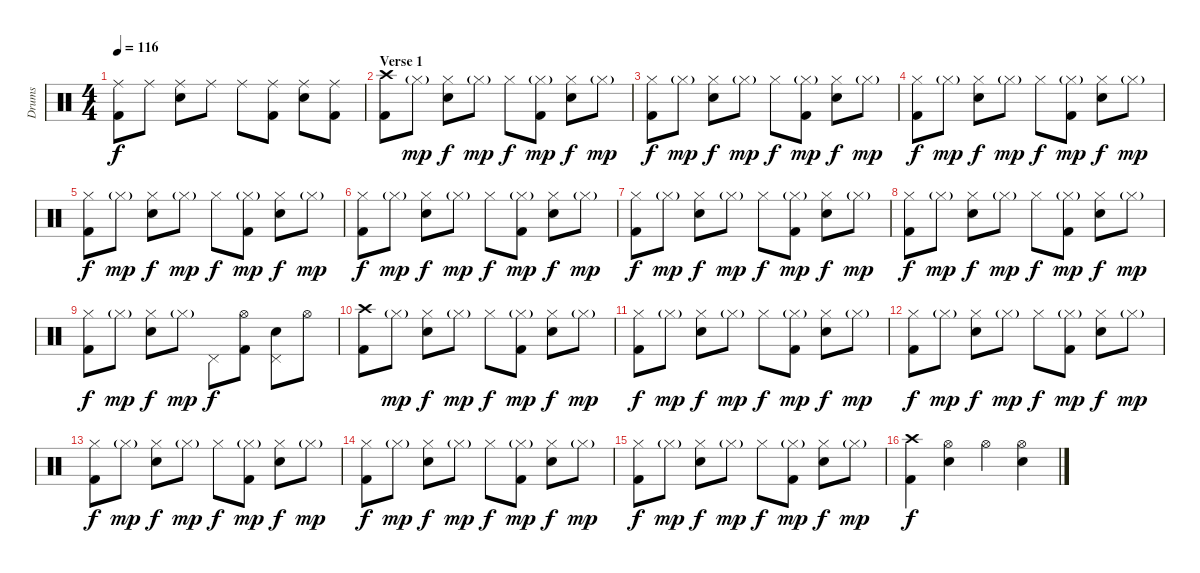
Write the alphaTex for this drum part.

\track ("Drums" "Drums") {instrument percussion}
\staff {score}
\articulation defaults
\ts (4 4)
\tempo 116
\clef neutral
\ks c
("Ride (middle)" "Kick (hit) 2").8{dy f} "Ride (middle)".8 ("Ride (middle)" "Snare (hit) 2").8 "Ride (middle)".8 "Ride (middle)".8 ("Ride (middle)" "Kick (hit) 2").8 ("Ride (middle)" "Snare (hit) 2").8 ("Ride (middle)" "Kick (hit) 2").8 |
\section ("" "Verse 1")
("Crash high (hit)" "Kick (hit) 2").8 "Hi-Hat (closed)"{g}.8{dy mp} ("Hi-Hat (closed)" "Snare (hit) 2").8{dy f} "Hi-Hat (closed)"{g}.8{dy mp} "Hi-Hat (closed)".8{dy f} ("Hi-Hat (closed)"{g} "Kick (hit) 2").8{dy mp} ("Hi-Hat (closed)" "Snare (hit) 2").8{dy f} "Hi-Hat (closed)"{g}.8{dy mp} |
("Hi-Hat (closed)" "Kick (hit) 2").8{dy f} "Hi-Hat (closed)"{g}.8{dy mp} ("Hi-Hat (closed)" "Snare (hit) 2").8{dy f} "Hi-Hat (closed)"{g}.8{dy mp} "Hi-Hat (closed)".8{dy f} ("Hi-Hat (closed)"{g} "Kick (hit) 2").8{dy mp} ("Hi-Hat (closed)" "Snare (hit) 2").8{dy f} "Hi-Hat (closed)"{g}.8{dy mp} |
("Hi-Hat (closed)" "Kick (hit) 2").8{dy f} "Hi-Hat (closed)"{g}.8{dy mp} ("Hi-Hat (closed)" "Snare (hit) 2").8{dy f} "Hi-Hat (closed)"{g}.8{dy mp} "Hi-Hat (closed)".8{dy f} ("Hi-Hat (closed)"{g} "Kick (hit) 2").8{dy mp} ("Hi-Hat (closed)" "Snare (hit) 2").8{dy f} "Hi-Hat (closed)"{g}.8{dy mp} |
("Hi-Hat (closed)" "Kick (hit) 2").8{dy f} "Hi-Hat (closed)"{g}.8{dy mp} ("Hi-Hat (closed)" "Snare (hit) 2").8{dy f} "Hi-Hat (closed)"{g}.8{dy mp} "Hi-Hat (closed)".8{dy f} ("Hi-Hat (closed)"{g} "Kick (hit) 2").8{dy mp} ("Hi-Hat (closed)" "Snare (hit) 2").8{dy f} "Hi-Hat (closed)"{g}.8{dy mp} |
("Hi-Hat (closed)" "Kick (hit) 2").8{dy f} "Hi-Hat (closed)"{g}.8{dy mp} ("Hi-Hat (closed)" "Snare (hit) 2").8{dy f} "Hi-Hat (closed)"{g}.8{dy mp} "Hi-Hat (closed)".8{dy f} ("Hi-Hat (closed)"{g} "Kick (hit) 2").8{dy mp} ("Hi-Hat (closed)" "Snare (hit) 2").8{dy f} "Hi-Hat (closed)"{g}.8{dy mp} |
("Hi-Hat (closed)" "Kick (hit) 2").8{dy f} "Hi-Hat (closed)"{g}.8{dy mp} ("Hi-Hat (closed)" "Snare (hit) 2").8{dy f} "Hi-Hat (closed)"{g}.8{dy mp} "Hi-Hat (closed)".8{dy f} ("Hi-Hat (closed)"{g} "Kick (hit) 2").8{dy mp} ("Hi-Hat (closed)" "Snare (hit) 2").8{dy f} "Hi-Hat (closed)"{g}.8{dy mp} |
("Hi-Hat (closed)" "Kick (hit) 2").8{dy f} "Hi-Hat (closed)"{g}.8{dy mp} ("Hi-Hat (closed)" "Snare (hit) 2").8{dy f} "Hi-Hat (closed)"{g}.8{dy mp} "Hi-Hat (closed)".8{dy f} ("Hi-Hat (closed)"{g} "Kick (hit) 2").8{dy mp} ("Hi-Hat (closed)" "Snare (hit) 2").8{dy f} "Hi-Hat (closed)"{g}.8{dy mp} |
("Hi-Hat (closed)" "Kick (hit) 2").8{dy f} "Hi-Hat (closed)"{g}.8{dy mp} ("Hi-Hat (closed)" "Snare (hit) 2").8{dy f} "Hi-Hat (closed)"{g}.8{dy mp} "Pedal Hi-Hat (hit)".8{dy f} ("Hi-Hat (open)" "Kick (hit) 2").8 ("Snare (hit) 2" "Pedal Hi-Hat (hit)").8 "Hi-Hat (open)".8 |
("Crash high (hit)" "Kick (hit) 2").8 "Hi-Hat (closed)"{g}.8{dy mp} ("Hi-Hat (closed)" "Snare (hit) 2").8{dy f} "Hi-Hat (closed)"{g}.8{dy mp} "Hi-Hat (closed)".8{dy f} ("Hi-Hat (closed)"{g} "Kick (hit) 2").8{dy mp} ("Hi-Hat (closed)" "Snare (hit) 2").8{dy f} "Hi-Hat (closed)"{g}.8{dy mp} |
("Hi-Hat (closed)" "Kick (hit) 2").8{dy f} "Hi-Hat (closed)"{g}.8{dy mp} ("Hi-Hat (closed)" "Snare (hit) 2").8{dy f} "Hi-Hat (closed)"{g}.8{dy mp} "Hi-Hat (closed)".8{dy f} ("Hi-Hat (closed)"{g} "Kick (hit) 2").8{dy mp} ("Hi-Hat (closed)" "Snare (hit) 2").8{dy f} "Hi-Hat (closed)"{g}.8{dy mp} |
("Hi-Hat (closed)" "Kick (hit) 2").8{dy f} "Hi-Hat (closed)"{g}.8{dy mp} ("Hi-Hat (closed)" "Snare (hit) 2").8{dy f} "Hi-Hat (closed)"{g}.8{dy mp} "Hi-Hat (closed)".8{dy f} ("Hi-Hat (closed)"{g} "Kick (hit) 2").8{dy mp} ("Hi-Hat (closed)" "Snare (hit) 2").8{dy f} "Hi-Hat (closed)"{g}.8{dy mp} |
("Hi-Hat (closed)" "Kick (hit) 2").8{dy f} "Hi-Hat (closed)"{g}.8{dy mp} ("Hi-Hat (closed)" "Snare (hit) 2").8{dy f} "Hi-Hat (closed)"{g}.8{dy mp} "Hi-Hat (closed)".8{dy f} ("Hi-Hat (closed)"{g} "Kick (hit) 2").8{dy mp} ("Hi-Hat (closed)" "Snare (hit) 2").8{dy f} "Hi-Hat (closed)"{g}.8{dy mp} |
("Hi-Hat (closed)" "Kick (hit) 2").8{dy f} "Hi-Hat (closed)"{g}.8{dy mp} ("Hi-Hat (closed)" "Snare (hit) 2").8{dy f} "Hi-Hat (closed)"{g}.8{dy mp} "Hi-Hat (closed)".8{dy f} ("Hi-Hat (closed)"{g} "Kick (hit) 2").8{dy mp} ("Hi-Hat (closed)" "Snare (hit) 2").8{dy f} "Hi-Hat (closed)"{g}.8{dy mp} |
("Hi-Hat (closed)" "Kick (hit) 2").8{dy f} "Hi-Hat (closed)"{g}.8{dy mp} ("Hi-Hat (closed)" "Snare (hit) 2").8{dy f} "Hi-Hat (closed)"{g}.8{dy mp} "Hi-Hat (closed)".8{dy f} ("Hi-Hat (closed)"{g} "Kick (hit) 2").8{dy mp} ("Hi-Hat (closed)" "Snare (hit) 2").8{dy f} "Hi-Hat (closed)"{g}.8{dy mp} |
("Crash high (hit)" "Kick (hit) 2").4{dy f} ("Hi-Hat (open)" "Snare (hit) 2").4 "Hi-Hat (open)".4 ("Hi-Hat (open)" "Snare (hit) 2").4
